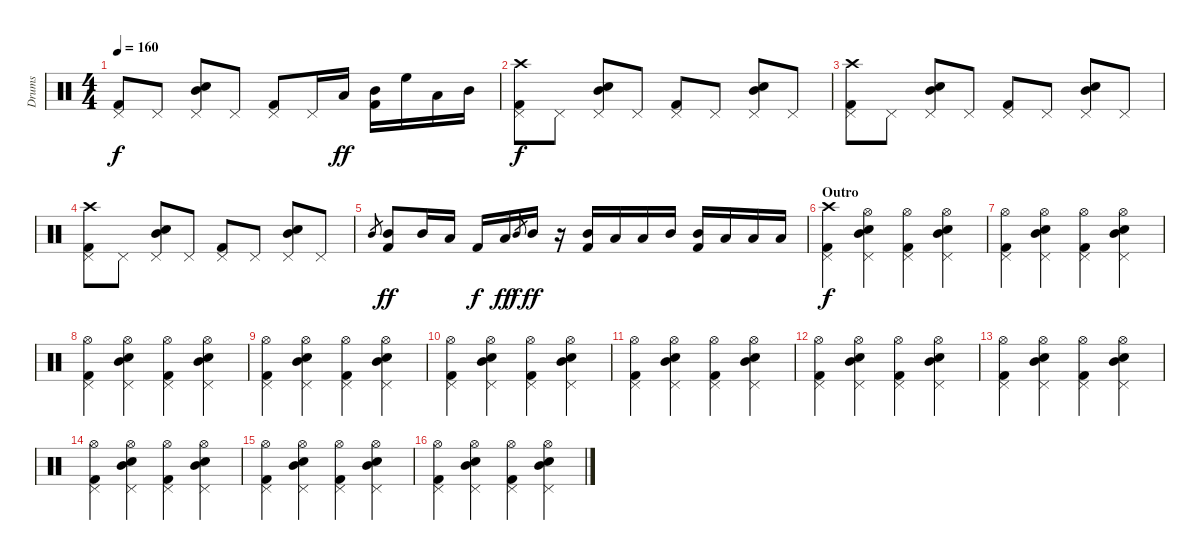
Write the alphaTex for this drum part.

\track ("Drums" "Drums") {instrument percussion}
\staff {score}
\articulation defaults
\ts (4 4)
\tempo 160
\clef neutral
\ks c
("Kick (hit) 2" "Pedal Hi-Hat (hit)").8{dy f} "Pedal Hi-Hat (hit)".8 ("Snare (hit) 2" "Pedal Hi-Hat (hit)" "Mid Tom (hit)").8 "Pedal Hi-Hat (hit)".8 ("Kick (hit) 2" "Pedal Hi-Hat (hit)").8 "Pedal Hi-Hat (hit)".16 "Low Tom (hit)".16{dy ff} ("Kick (hit) 2" "Mid Tom (hit)").16 "High Floor Tom (hit)".16 "Low Tom (hit)".16 "Mid Tom (hit)".16 |
("Kick (hit) 2" "Pedal Hi-Hat (hit)" "Crash high (hit)").8{dy f} "Pedal Hi-Hat (hit)".8 ("Snare (hit) 2" "Pedal Hi-Hat (hit)" "Mid Tom (hit)").8 "Pedal Hi-Hat (hit)".8 ("Kick (hit) 2" "Pedal Hi-Hat (hit)").8 "Pedal Hi-Hat (hit)".8 ("Snare (hit) 2" "Pedal Hi-Hat (hit)" "Mid Tom (hit)").8 "Pedal Hi-Hat (hit)".8 |
("Kick (hit) 2" "Pedal Hi-Hat (hit)" "Crash high (hit)").8 "Pedal Hi-Hat (hit)".8 ("Snare (hit) 2" "Pedal Hi-Hat (hit)" "Mid Tom (hit)").8 "Pedal Hi-Hat (hit)".8 ("Kick (hit) 2" "Pedal Hi-Hat (hit)").8 "Pedal Hi-Hat (hit)".8 ("Snare (hit) 2" "Pedal Hi-Hat (hit)" "Mid Tom (hit)").8 "Pedal Hi-Hat (hit)".8 |
("Kick (hit) 2" "Pedal Hi-Hat (hit)" "Crash high (hit)").8 "Pedal Hi-Hat (hit)".8 ("Snare (hit) 2" "Pedal Hi-Hat (hit)" "Mid Tom (hit)").8 "Pedal Hi-Hat (hit)".8 ("Kick (hit) 2" "Pedal Hi-Hat (hit)").8 "Pedal Hi-Hat (hit)".8 ("Snare (hit) 2" "Pedal Hi-Hat (hit)" "Mid Tom (hit)").8 "Pedal Hi-Hat (hit)".8 |
"Mid Tom (hit)".8{gr} ("Kick (hit) 2" "Mid Tom (hit)").8{dy ff} "Mid Tom (hit)".16 "Low Tom (hit)".16 "Kick (hit) 2".16{dy f} "Low Tom (hit)".16{dy ff} "Mid Tom (hit)".8{gr dy f} "Mid Tom (hit)".16{dy ff} r.16 ("Kick (hit) 2" "Mid Tom (hit)").16 "Low Tom (hit)".16 "Low Tom (hit)".16 "Mid Tom (hit)".16 ("Kick (hit) 2" "Mid Tom (hit)").16 "Low Tom (hit)".16 "Low Floor Tom (hit)".16 "Low Tom (hit)".16 |
\section ("" "Outro")
("Kick (hit) 2" "Pedal Hi-Hat (hit)" "Crash high (hit)").4{dy f} ("Snare (hit) 2" "Pedal Hi-Hat (hit)" "Mid Tom (hit)" "Hi-Hat (open)").4 ("Kick (hit) 2" "Pedal Hi-Hat (hit)" "Hi-Hat (open)").4 ("Snare (hit) 2" "Pedal Hi-Hat (hit)" "Mid Tom (hit)" "Hi-Hat (open)").4 |
("Kick (hit) 2" "Pedal Hi-Hat (hit)" "Hi-Hat (open)").4 ("Snare (hit) 2" "Pedal Hi-Hat (hit)" "Mid Tom (hit)" "Hi-Hat (open)").4 ("Kick (hit) 2" "Pedal Hi-Hat (hit)" "Hi-Hat (open)").4 ("Snare (hit) 2" "Pedal Hi-Hat (hit)" "Mid Tom (hit)" "Hi-Hat (open)").4 |
("Kick (hit) 2" "Pedal Hi-Hat (hit)" "Hi-Hat (open)").4 ("Snare (hit) 2" "Pedal Hi-Hat (hit)" "Mid Tom (hit)" "Hi-Hat (open)").4 ("Kick (hit) 2" "Pedal Hi-Hat (hit)" "Hi-Hat (open)").4 ("Snare (hit) 2" "Pedal Hi-Hat (hit)" "Mid Tom (hit)" "Hi-Hat (open)").4 |
("Kick (hit) 2" "Pedal Hi-Hat (hit)" "Hi-Hat (open)").4 ("Snare (hit) 2" "Pedal Hi-Hat (hit)" "Mid Tom (hit)" "Hi-Hat (open)").4 ("Kick (hit) 2" "Pedal Hi-Hat (hit)" "Hi-Hat (open)").4 ("Snare (hit) 2" "Pedal Hi-Hat (hit)" "Mid Tom (hit)" "Hi-Hat (open)").4 |
("Kick (hit) 2" "Pedal Hi-Hat (hit)" "Hi-Hat (open)").4 ("Snare (hit) 2" "Pedal Hi-Hat (hit)" "Mid Tom (hit)" "Hi-Hat (open)").4 ("Kick (hit) 2" "Pedal Hi-Hat (hit)" "Hi-Hat (open)").4 ("Snare (hit) 2" "Pedal Hi-Hat (hit)" "Mid Tom (hit)" "Hi-Hat (open)").4 |
("Kick (hit) 2" "Pedal Hi-Hat (hit)" "Hi-Hat (open)").4 ("Snare (hit) 2" "Pedal Hi-Hat (hit)" "Mid Tom (hit)" "Hi-Hat (open)").4 ("Kick (hit) 2" "Pedal Hi-Hat (hit)" "Hi-Hat (open)").4 ("Snare (hit) 2" "Pedal Hi-Hat (hit)" "Mid Tom (hit)" "Hi-Hat (open)").4 |
("Kick (hit) 2" "Pedal Hi-Hat (hit)" "Hi-Hat (open)").4 ("Snare (hit) 2" "Pedal Hi-Hat (hit)" "Mid Tom (hit)" "Hi-Hat (open)").4 ("Kick (hit) 2" "Pedal Hi-Hat (hit)" "Hi-Hat (open)").4 ("Snare (hit) 2" "Pedal Hi-Hat (hit)" "Mid Tom (hit)" "Hi-Hat (open)").4 |
("Kick (hit) 2" "Pedal Hi-Hat (hit)" "Hi-Hat (open)").4 ("Snare (hit) 2" "Pedal Hi-Hat (hit)" "Mid Tom (hit)" "Hi-Hat (open)").4 ("Kick (hit) 2" "Pedal Hi-Hat (hit)" "Hi-Hat (open)").4 ("Snare (hit) 2" "Pedal Hi-Hat (hit)" "Mid Tom (hit)" "Hi-Hat (open)").4 |
("Kick (hit) 2" "Pedal Hi-Hat (hit)" "Hi-Hat (open)").4 ("Snare (hit) 2" "Pedal Hi-Hat (hit)" "Mid Tom (hit)" "Hi-Hat (open)").4 ("Kick (hit) 2" "Pedal Hi-Hat (hit)" "Hi-Hat (open)").4 ("Snare (hit) 2" "Pedal Hi-Hat (hit)" "Mid Tom (hit)" "Hi-Hat (open)").4 |
("Kick (hit) 2" "Pedal Hi-Hat (hit)" "Hi-Hat (open)").4 ("Snare (hit) 2" "Pedal Hi-Hat (hit)" "Mid Tom (hit)" "Hi-Hat (open)").4 ("Kick (hit) 2" "Pedal Hi-Hat (hit)" "Hi-Hat (open)").4 ("Snare (hit) 2" "Pedal Hi-Hat (hit)" "Mid Tom (hit)" "Hi-Hat (open)").4 |
("Kick (hit) 2" "Pedal Hi-Hat (hit)" "Hi-Hat (open)").4 ("Snare (hit) 2" "Pedal Hi-Hat (hit)" "Mid Tom (hit)" "Hi-Hat (open)").4 ("Kick (hit) 2" "Pedal Hi-Hat (hit)" "Hi-Hat (open)").4 ("Snare (hit) 2" "Pedal Hi-Hat (hit)" "Mid Tom (hit)" "Hi-Hat (open)").4
